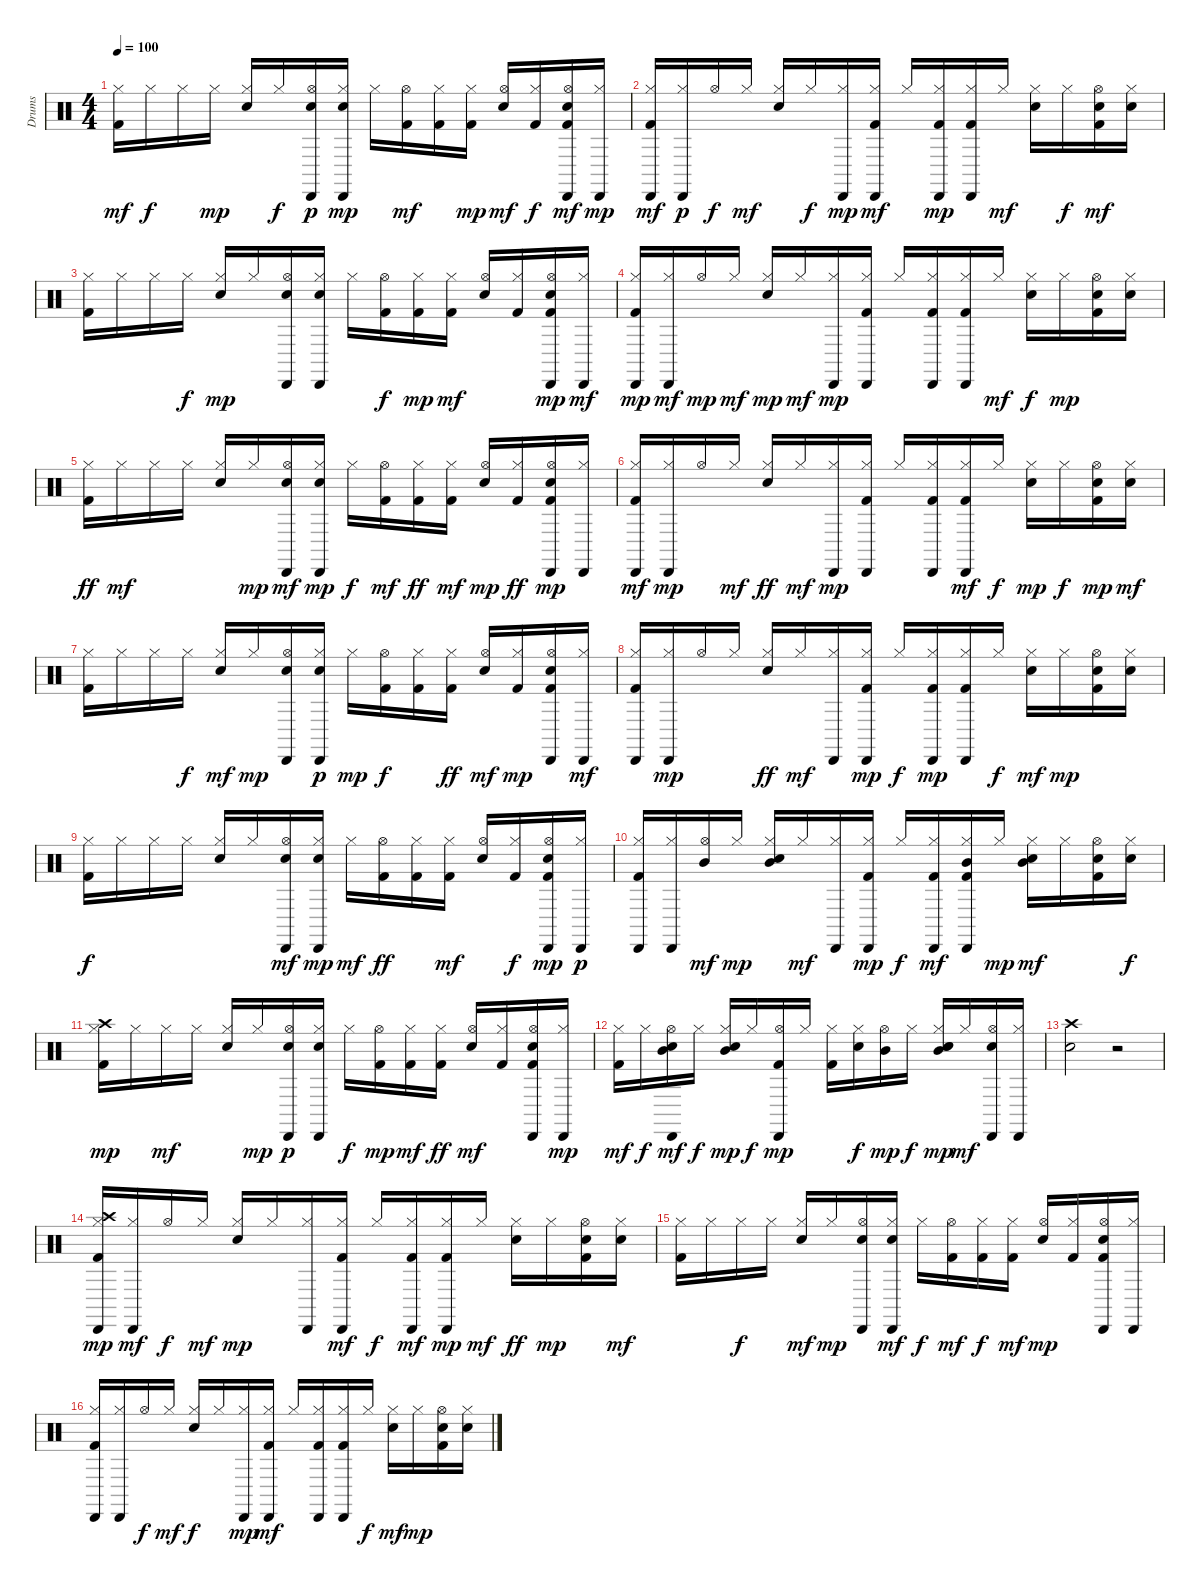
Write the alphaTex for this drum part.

\track ("Drums" "Drums") {instrument percussion}
\staff {score}
\articulation defaults
\ts (4 4)
\tempo 100
\clef neutral
\ks c
("Kick (hit) 2" "Hi-Hat (closed)").16{dy mf} "Hi-Hat (closed)".16{dy f} "Hi-Hat (closed)".16 "Hi-Hat (closed)".16{dy mp} ("Snare (hit) 2" "Hi-Hat (closed)").16 "Hi-Hat (closed)".16{dy f} ("Hand Clap (hit)" "Hi-Hat (open)" "Cabasa (hit)").16{dy p} ("Hand Clap (hit)" "Hi-Hat (closed)" "Cabasa (hit)").16{dy mp} "Hi-Hat (closed)".16 ("Kick (hit) 2" "Hi-Hat (open)").16{dy mf} ("Kick (hit) 2" "Hi-Hat (closed)").16 ("Kick (hit) 2" "Hi-Hat (closed)").16{dy mp} ("Snare (hit) 2" "Hi-Hat (open)").16{dy mf} ("Kick (hit) 2" "Hi-Hat (closed)").16{dy f} ("Kick (hit) 2" "Hand Clap (hit)" "Hi-Hat (open)" "Cabasa (hit)").16{dy mf} ("Hi-Hat (closed)" "Cabasa (hit)").16{dy mp} |
("Kick (hit) 2" "Hi-Hat (closed)" "Cabasa (hit)").16{dy mf} ("Hi-Hat (closed)" "Cabasa (hit)").16{dy p} "Hi-Hat (open)".16{dy f} "Hi-Hat (closed)".16{dy mf} ("Snare (hit) 2" "Hi-Hat (closed)").16 "Hi-Hat (closed)".16{dy f} ("Hi-Hat (closed)" "Cabasa (hit)").16{dy mp} ("Kick (hit) 2" "Hi-Hat (closed)" "Cabasa (hit)").16{dy mf} "Hi-Hat (closed)".16 ("Kick (hit) 2" "Hi-Hat (closed)" "Cabasa (hit)").16{dy mp} ("Kick (hit) 2" "Hi-Hat (closed)" "Cabasa (hit)").16 "Hi-Hat (closed)".16{dy mf} ("Snare (hit) 2" "Hi-Hat (closed)").16 "Hi-Hat (closed)".16{dy f} ("Kick (hit) 2" "Hand Clap (hit)" "Hi-Hat (open)").16{dy mf} ("Hand Clap (hit)" "Hi-Hat (closed)").16 |
("Kick (hit) 2" "Hi-Hat (closed)").16 "Hi-Hat (closed)".16 "Hi-Hat (closed)".16 "Hi-Hat (closed)".16{dy f} ("Snare (hit) 2" "Hi-Hat (closed)").16{dy mp} "Hi-Hat (closed)".16 ("Hand Clap (hit)" "Hi-Hat (open)" "Cabasa (hit)").16 ("Hand Clap (hit)" "Hi-Hat (closed)" "Cabasa (hit)").16 "Hi-Hat (closed)".16 ("Kick (hit) 2" "Hi-Hat (open)").16{dy f} ("Kick (hit) 2" "Hi-Hat (closed)").16{dy mp} ("Kick (hit) 2" "Hi-Hat (closed)").16{dy mf} ("Snare (hit) 2" "Hi-Hat (open)").16 ("Kick (hit) 2" "Hi-Hat (closed)").16 ("Kick (hit) 2" "Hand Clap (hit)" "Hi-Hat (open)" "Cabasa (hit)").16{dy mp} ("Hi-Hat (closed)" "Cabasa (hit)").16{dy mf} |
("Kick (hit) 2" "Hi-Hat (closed)" "Cabasa (hit)").16{dy mp} ("Hi-Hat (closed)" "Cabasa (hit)").16{dy mf} "Hi-Hat (open)".16{dy mp} "Hi-Hat (closed)".16{dy mf} ("Snare (hit) 2" "Hi-Hat (closed)").16{dy mp} "Hi-Hat (closed)".16{dy mf} ("Hi-Hat (closed)" "Cabasa (hit)").16{dy mp} ("Kick (hit) 2" "Hi-Hat (closed)" "Cabasa (hit)").16 "Hi-Hat (closed)".16 ("Kick (hit) 2" "Hi-Hat (closed)" "Cabasa (hit)").16 ("Kick (hit) 2" "Hi-Hat (closed)" "Cabasa (hit)").16 "Hi-Hat (closed)".16{dy mf} ("Snare (hit) 2" "Hi-Hat (closed)").16{dy f} "Hi-Hat (closed)".16{dy mp} ("Kick (hit) 2" "Hand Clap (hit)" "Hi-Hat (open)").16 ("Hand Clap (hit)" "Hi-Hat (closed)").16 |
("Kick (hit) 2" "Hi-Hat (closed)").16{dy ff} "Hi-Hat (closed)".16{dy mf} "Hi-Hat (closed)".16 "Hi-Hat (closed)".16 ("Snare (hit) 2" "Hi-Hat (closed)").16 "Hi-Hat (closed)".16{dy mp} ("Hand Clap (hit)" "Hi-Hat (open)" "Cabasa (hit)").16{dy mf} ("Hand Clap (hit)" "Hi-Hat (closed)" "Cabasa (hit)").16{dy mp} "Hi-Hat (closed)".16{dy f} ("Kick (hit) 2" "Hi-Hat (open)").16{dy mf} ("Kick (hit) 2" "Hi-Hat (closed)").16{dy ff} ("Kick (hit) 2" "Hi-Hat (closed)").16{dy mf} ("Snare (hit) 2" "Hi-Hat (open)").16{dy mp} ("Kick (hit) 2" "Hi-Hat (closed)").16{dy ff} ("Kick (hit) 2" "Hand Clap (hit)" "Hi-Hat (open)" "Cabasa (hit)").16{dy mp} ("Hi-Hat (closed)" "Cabasa (hit)").16 |
("Kick (hit) 2" "Hi-Hat (closed)" "Cabasa (hit)").16{dy mf} ("Hi-Hat (closed)" "Cabasa (hit)").16{dy mp} "Hi-Hat (open)".16 "Hi-Hat (closed)".16{dy mf} ("Snare (hit) 2" "Hi-Hat (closed)").16{dy ff} "Hi-Hat (closed)".16{dy mf} ("Hi-Hat (closed)" "Cabasa (hit)").16{dy mp} ("Kick (hit) 2" "Hi-Hat (closed)" "Cabasa (hit)").16 "Hi-Hat (closed)".16 ("Kick (hit) 2" "Hi-Hat (closed)" "Cabasa (hit)").16 ("Kick (hit) 2" "Hi-Hat (closed)" "Cabasa (hit)").16{dy mf} "Hi-Hat (closed)".16{dy f} ("Snare (hit) 2" "Hi-Hat (closed)").16{dy mp} "Hi-Hat (closed)".16{dy f} ("Kick (hit) 2" "Hand Clap (hit)" "Hi-Hat (open)").16{dy mp} ("Hand Clap (hit)" "Hi-Hat (closed)").16{dy mf} |
("Kick (hit) 2" "Hi-Hat (closed)").16 "Hi-Hat (closed)".16 "Hi-Hat (closed)".16 "Hi-Hat (closed)".16{dy f} ("Snare (hit) 2" "Hi-Hat (closed)").16{dy mf} "Hi-Hat (closed)".16{dy mp} ("Hand Clap (hit)" "Hi-Hat (open)" "Cabasa (hit)").16 ("Hand Clap (hit)" "Hi-Hat (closed)" "Cabasa (hit)").16{dy p} "Hi-Hat (closed)".16{dy mp} ("Kick (hit) 2" "Hi-Hat (open)").16{dy f} ("Kick (hit) 2" "Hi-Hat (closed)").16 ("Kick (hit) 2" "Hi-Hat (closed)").16{dy ff} ("Snare (hit) 2" "Hi-Hat (open)").16{dy mf} ("Kick (hit) 2" "Hi-Hat (closed)").16{dy mp} ("Kick (hit) 2" "Hand Clap (hit)" "Hi-Hat (open)" "Cabasa (hit)").16 ("Hi-Hat (closed)" "Cabasa (hit)").16{dy mf} |
("Kick (hit) 2" "Hi-Hat (closed)" "Cabasa (hit)").16 ("Hi-Hat (closed)" "Cabasa (hit)").16{dy mp} "Hi-Hat (open)".16 "Hi-Hat (closed)".16 ("Snare (hit) 2" "Hi-Hat (closed)").16{dy ff} "Hi-Hat (closed)".16{dy mf} ("Hi-Hat (closed)" "Cabasa (hit)").16 ("Kick (hit) 2" "Hi-Hat (closed)" "Cabasa (hit)").16{dy mp} "Hi-Hat (closed)".16{dy f} ("Kick (hit) 2" "Hi-Hat (closed)" "Cabasa (hit)").16{dy mp} ("Kick (hit) 2" "Hi-Hat (closed)" "Cabasa (hit)").16 "Hi-Hat (closed)".16{dy f} ("Snare (hit) 2" "Hi-Hat (closed)").16{dy mf} "Hi-Hat (closed)".16{dy mp} ("Kick (hit) 2" "Hand Clap (hit)" "Hi-Hat (open)").16 ("Hand Clap (hit)" "Hi-Hat (closed)").16 |
("Kick (hit) 2" "Hi-Hat (closed)").16{dy f} "Hi-Hat (closed)".16 "Hi-Hat (closed)".16 "Hi-Hat (closed)".16 ("Snare (hit) 2" "Hi-Hat (closed)").16 "Hi-Hat (closed)".16 ("Hand Clap (hit)" "Hi-Hat (open)" "Cabasa (hit)").16{dy mf} ("Hand Clap (hit)" "Hi-Hat (closed)" "Cabasa (hit)").16{dy mp} "Hi-Hat (closed)".16{dy mf} ("Kick (hit) 2" "Hi-Hat (open)").16{dy ff} ("Kick (hit) 2" "Hi-Hat (closed)").16 ("Kick (hit) 2" "Hi-Hat (closed)").16{dy mf} ("Snare (hit) 2" "Hi-Hat (open)").16 ("Kick (hit) 2" "Hi-Hat (closed)").16{dy f} ("Kick (hit) 2" "Hand Clap (hit)" "Hi-Hat (open)" "Cabasa (hit)").16{dy mp} ("Hi-Hat (closed)" "Cabasa (hit)").16{dy p} |
("Kick (hit) 2" "Hi-Hat (closed)" "Cabasa (hit)").16 ("Hi-Hat (closed)" "Cabasa (hit)").16 ("Hi-Hat (open)" "Mid Tom (hit)").16{dy mf} "Hi-Hat (closed)".16{dy mp} ("Snare (hit) 2" "Hi-Hat (closed)" "Mid Tom (hit)").16 "Hi-Hat (closed)".16{dy mf} ("Hi-Hat (closed)" "Cabasa (hit)").16 ("Kick (hit) 2" "Hi-Hat (closed)" "Cabasa (hit)").16{dy mp} "Hi-Hat (closed)".16{dy f} ("Kick (hit) 2" "Hi-Hat (closed)" "Cabasa (hit)").16{dy mf} ("Kick (hit) 2" "Hi-Hat (closed)" "Mid Tom (hit)" "Cabasa (hit)").16 "Hi-Hat (closed)".16{dy mp} ("Snare (hit) 2" "Hi-Hat (closed)" "Mid Tom (hit)").16{dy mf} "Hi-Hat (closed)".16 ("Kick (hit) 2" "Hand Clap (hit)" "Hi-Hat (open)").16 ("Hand Clap (hit)" "Hi-Hat (closed)").16{dy f} |
("Kick (hit) 2" "Hi-Hat (closed)" "Crash high (hit)").16{dy mp} "Hi-Hat (closed)".16 "Hi-Hat (closed)".16{dy mf} "Hi-Hat (closed)".16 ("Snare (hit) 2" "Hi-Hat (closed)").16 "Hi-Hat (closed)".16{dy mp} ("Hand Clap (hit)" "Hi-Hat (open)" "Cabasa (hit)").16{dy p} ("Hand Clap (hit)" "Hi-Hat (closed)" "Cabasa (hit)").16 "Hi-Hat (closed)".16{dy f} ("Kick (hit) 2" "Hi-Hat (open)").16{dy mp} ("Kick (hit) 2" "Hi-Hat (closed)").16{dy mf} ("Kick (hit) 2" "Hi-Hat (closed)").16{dy ff} ("Snare (hit) 2" "Hi-Hat (open)").16{dy mf} ("Kick (hit) 2" "Hi-Hat (closed)").16 ("Kick (hit) 2" "Hand Clap (hit)" "Hi-Hat (open)" "Cabasa (hit)").16 ("Hi-Hat (closed)" "Cabasa (hit)").16{dy mp} |
("Kick (hit) 2" "Hi-Hat (closed)").16{dy mf} "Hi-Hat (closed)".16{dy f} ("Hand Clap (hit)" "Hi-Hat (open)" "Mid Tom (hit)" "Cabasa (hit)").16{dy mf} "Hi-Hat (closed)".16{dy f} ("Snare (hit) 2" "Hi-Hat (closed)" "Mid Tom (hit)").16{dy mp} "Hi-Hat (closed)".16{dy f} ("Kick (hit) 2" "Hi-Hat (open)" "Cabasa (hit)").16{dy mp} "Hi-Hat (closed)".16 ("Kick (hit) 2" "Hi-Hat (closed)").16 ("Hand Clap (hit)" "Hi-Hat (closed)").16{dy f} ("Hi-Hat (open)" "Mid Tom (hit)").16{dy mp} "Hi-Hat (closed)".16{dy f} ("Snare (hit) 2" "Hand Clap (hit)" "Hi-Hat (closed)" "Mid Tom (hit)").16{dy mp} "Hi-Hat (closed)".16{dy mf} ("Hand Clap (hit)" "Hi-Hat (open)" "Cabasa (hit)").16 ("Hi-Hat (closed)" "Cabasa (hit)").16 |
("Snare (hit) 2" "Crash high (hit)").2 r.2 |
("Kick (hit) 2" "Hi-Hat (closed)" "Crash high (hit)" "Cabasa (hit)").16{dy mp} ("Hi-Hat (closed)" "Cabasa (hit)").16{dy mf} "Hi-Hat (open)".16{dy f} "Hi-Hat (closed)".16{dy mf} ("Snare (hit) 2" "Hi-Hat (closed)").16{dy mp} "Hi-Hat (closed)".16 ("Hi-Hat (closed)" "Cabasa (hit)").16 ("Kick (hit) 2" "Hi-Hat (closed)" "Cabasa (hit)").16{dy mf} "Hi-Hat (closed)".16{dy f} ("Kick (hit) 2" "Hi-Hat (closed)" "Cabasa (hit)").16{dy mf} ("Kick (hit) 2" "Hi-Hat (closed)" "Cabasa (hit)").16{dy mp} "Hi-Hat (closed)".16{dy mf} ("Snare (hit) 2" "Hi-Hat (closed)").16{dy ff} "Hi-Hat (closed)".16{dy mp} ("Kick (hit) 2" "Hand Clap (hit)" "Hi-Hat (open)").16 ("Hand Clap (hit)" "Hi-Hat (closed)").16{dy mf} |
("Kick (hit) 2" "Hi-Hat (closed)").16 "Hi-Hat (closed)".16 "Hi-Hat (closed)".16{dy f} "Hi-Hat (closed)".16 ("Snare (hit) 2" "Hi-Hat (closed)").16{dy mf} "Hi-Hat (closed)".16{dy mp} ("Hand Clap (hit)" "Hi-Hat (open)" "Cabasa (hit)").16 ("Hand Clap (hit)" "Hi-Hat (closed)" "Cabasa (hit)").16{dy mf} "Hi-Hat (closed)".16{dy f} ("Kick (hit) 2" "Hi-Hat (open)").16{dy mf} ("Kick (hit) 2" "Hi-Hat (closed)").16{dy f} ("Kick (hit) 2" "Hi-Hat (closed)").16{dy mf} ("Snare (hit) 2" "Hi-Hat (open)").16{dy mp} ("Kick (hit) 2" "Hi-Hat (closed)").16 ("Kick (hit) 2" "Hand Clap (hit)" "Hi-Hat (open)" "Cabasa (hit)").16 ("Hi-Hat (closed)" "Cabasa (hit)").16 |
("Kick (hit) 2" "Hi-Hat (closed)" "Cabasa (hit)").16 ("Hi-Hat (closed)" "Cabasa (hit)").16 "Hi-Hat (open)".16{dy f} "Hi-Hat (closed)".16{dy mf} ("Snare (hit) 2" "Hi-Hat (closed)").16{dy f} "Hi-Hat (closed)".16 ("Hi-Hat (closed)" "Cabasa (hit)").16{dy mp} ("Kick (hit) 2" "Hi-Hat (closed)" "Cabasa (hit)").16{dy mf} "Hi-Hat (closed)".16 ("Kick (hit) 2" "Hi-Hat (closed)" "Cabasa (hit)").16 ("Kick (hit) 2" "Hi-Hat (closed)" "Cabasa (hit)").16 "Hi-Hat (closed)".16{dy f} ("Snare (hit) 2" "Hi-Hat (closed)").16{dy mf} "Hi-Hat (closed)".16{dy mp} ("Kick (hit) 2" "Hand Clap (hit)" "Hi-Hat (open)").16 ("Hand Clap (hit)" "Hi-Hat (closed)").16
